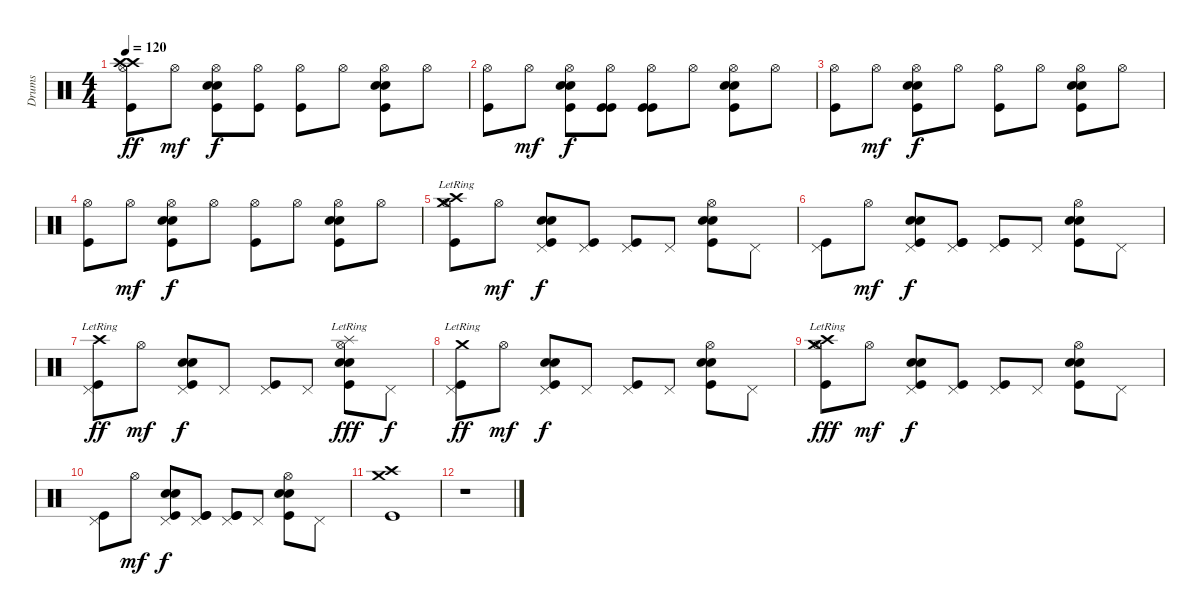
\track ("Drums" "Drums") {instrument percussion}
\staff {score}
\articulation defaults
\ts (4 4)
\tempo 120
\clef neutral
\ks c
("Hi-Hat (open)" "Kick (hit)" "Crash high (hit)" "Crash high (hit)").8{dy ff} "Hi-Hat (open)".8{dy mf} ("Hi-Hat (open)" "Kick (hit)" "Electric Snare (hit)" "Snare (hit) 2").8{dy f} ("Hi-Hat (open)" "Kick (hit)").8 ("Hi-Hat (open)" "Kick (hit)").8 "Hi-Hat (open)".8 ("Hi-Hat (open)" "Kick (hit)" "Electric Snare (hit)" "Snare (hit) 2").8 "Hi-Hat (open)".8 |
("Hi-Hat (open)" "Kick (hit)").8 "Hi-Hat (open)".8{dy mf} ("Hi-Hat (open)" "Kick (hit)" "Electric Snare (hit)" "Snare (hit) 2").8{dy f} ("Hi-Hat (open)" "Kick (hit)" "Kick (hit)").8 ("Hi-Hat (open)" "Kick (hit)" "Kick (hit)").8 "Hi-Hat (open)".8 ("Hi-Hat (open)" "Kick (hit)" "Electric Snare (hit)" "Snare (hit) 2").8 "Hi-Hat (open)".8 |
("Hi-Hat (open)" "Kick (hit)").8 "Hi-Hat (open)".8{dy mf} ("Hi-Hat (open)" "Kick (hit)" "Electric Snare (hit)" "Snare (hit) 2").8{dy f} "Hi-Hat (open)".8 ("Hi-Hat (open)" "Kick (hit)").8 "Hi-Hat (open)".8 ("Hi-Hat (open)" "Kick (hit)" "Electric Snare (hit)" "Snare (hit) 2").8 "Hi-Hat (open)".8 |
("Hi-Hat (open)" "Kick (hit)").8 "Hi-Hat (open)".8{dy mf} ("Hi-Hat (open)" "Kick (hit)" "Electric Snare (hit)" "Snare (hit) 2").8{dy f} "Hi-Hat (open)".8 ("Hi-Hat (open)" "Kick (hit)").8 "Hi-Hat (open)".8 ("Hi-Hat (open)" "Kick (hit)" "Electric Snare (hit)" "Snare (hit) 2").8 "Hi-Hat (open)".8 |
("Hi-Hat (open)" "Kick (hit)" "Crash medium (hit)"{lr} "Crash high (hit)"{lr}).8 "Hi-Hat (open)".8{dy mf} ("Pedal Hi-Hat (hit)" "Kick (hit)" "Electric Snare (hit)" "Snare (hit) 2").8{dy f} ("Pedal Hi-Hat (hit)" "Kick (hit)").8 ("Pedal Hi-Hat (hit)" "Kick (hit)").8 "Pedal Hi-Hat (hit)".8 ("Hi-Hat (open)" "Kick (hit)" "Electric Snare (hit)" "Snare (hit) 2").8 "Pedal Hi-Hat (hit)".8 |
("Pedal Hi-Hat (hit)" "Kick (hit)").8 "Hi-Hat (open)".8{dy mf} ("Pedal Hi-Hat (hit)" "Kick (hit)" "Electric Snare (hit)" "Snare (hit) 2").8{dy f} ("Pedal Hi-Hat (hit)" "Kick (hit)" "Kick (hit)").8 ("Pedal Hi-Hat (hit)" "Kick (hit)" "Kick (hit)").8 "Pedal Hi-Hat (hit)".8 ("Hi-Hat (open)" "Kick (hit)" "Electric Snare (hit)" "Snare (hit) 2").8 "Pedal Hi-Hat (hit)".8 |
("Pedal Hi-Hat (hit)" "Kick (hit)" "Crash high (hit)"{lr}).8{dy ff} "Hi-Hat (open)".8{dy mf} ("Pedal Hi-Hat (hit)" "Kick (hit)" "Electric Snare (hit)" "Snare (hit) 2").8{dy f} "Pedal Hi-Hat (hit)".8 ("Pedal Hi-Hat (hit)" "Kick (hit)").8 "Pedal Hi-Hat (hit)".8 ("Hi-Hat (open)" "Kick (hit)" "Electric Snare (hit)" "Snare (hit) 2" "Splash (hit)"{lr}).8{dy fff} "Pedal Hi-Hat (hit)".8{dy f} |
("Pedal Hi-Hat (hit)" "Kick (hit)" "Crash medium (hit)"{lr}).8{dy ff} "Hi-Hat (open)".8{dy mf} ("Pedal Hi-Hat (hit)" "Kick (hit)" "Electric Snare (hit)" "Snare (hit) 2").8{dy f} "Pedal Hi-Hat (hit)".8 ("Pedal Hi-Hat (hit)" "Kick (hit)").8 "Pedal Hi-Hat (hit)".8 ("Hi-Hat (open)" "Kick (hit)" "Electric Snare (hit)" "Snare (hit) 2").8 "Pedal Hi-Hat (hit)".8 |
("Hi-Hat (open)" "Kick (hit)" "Crash high (hit)"{lr} "Crash medium (hit)"{lr}).8{dy fff} "Hi-Hat (open)".8{dy mf} ("Pedal Hi-Hat (hit)" "Kick (hit)" "Electric Snare (hit)" "Snare (hit) 2").8{dy f} ("Pedal Hi-Hat (hit)" "Kick (hit)").8 ("Pedal Hi-Hat (hit)" "Kick (hit)").8 "Pedal Hi-Hat (hit)".8 ("Hi-Hat (open)" "Kick (hit)" "Electric Snare (hit)" "Snare (hit) 2").8 "Pedal Hi-Hat (hit)".8 |
("Pedal Hi-Hat (hit)" "Kick (hit)").8 "Hi-Hat (open)".8{dy mf} ("Pedal Hi-Hat (hit)" "Kick (hit)" "Electric Snare (hit)" "Snare (hit) 2").8{dy f} ("Pedal Hi-Hat (hit)" "Kick (hit)" "Kick (hit)").8 ("Pedal Hi-Hat (hit)" "Kick (hit)" "Kick (hit)").8 "Pedal Hi-Hat (hit)".8 ("Hi-Hat (open)" "Kick (hit)" "Electric Snare (hit)" "Snare (hit) 2").8 "Pedal Hi-Hat (hit)".8 |
("Kick (hit)" "Crash medium (hit)" "Crash high (hit)").1 |
r.1
